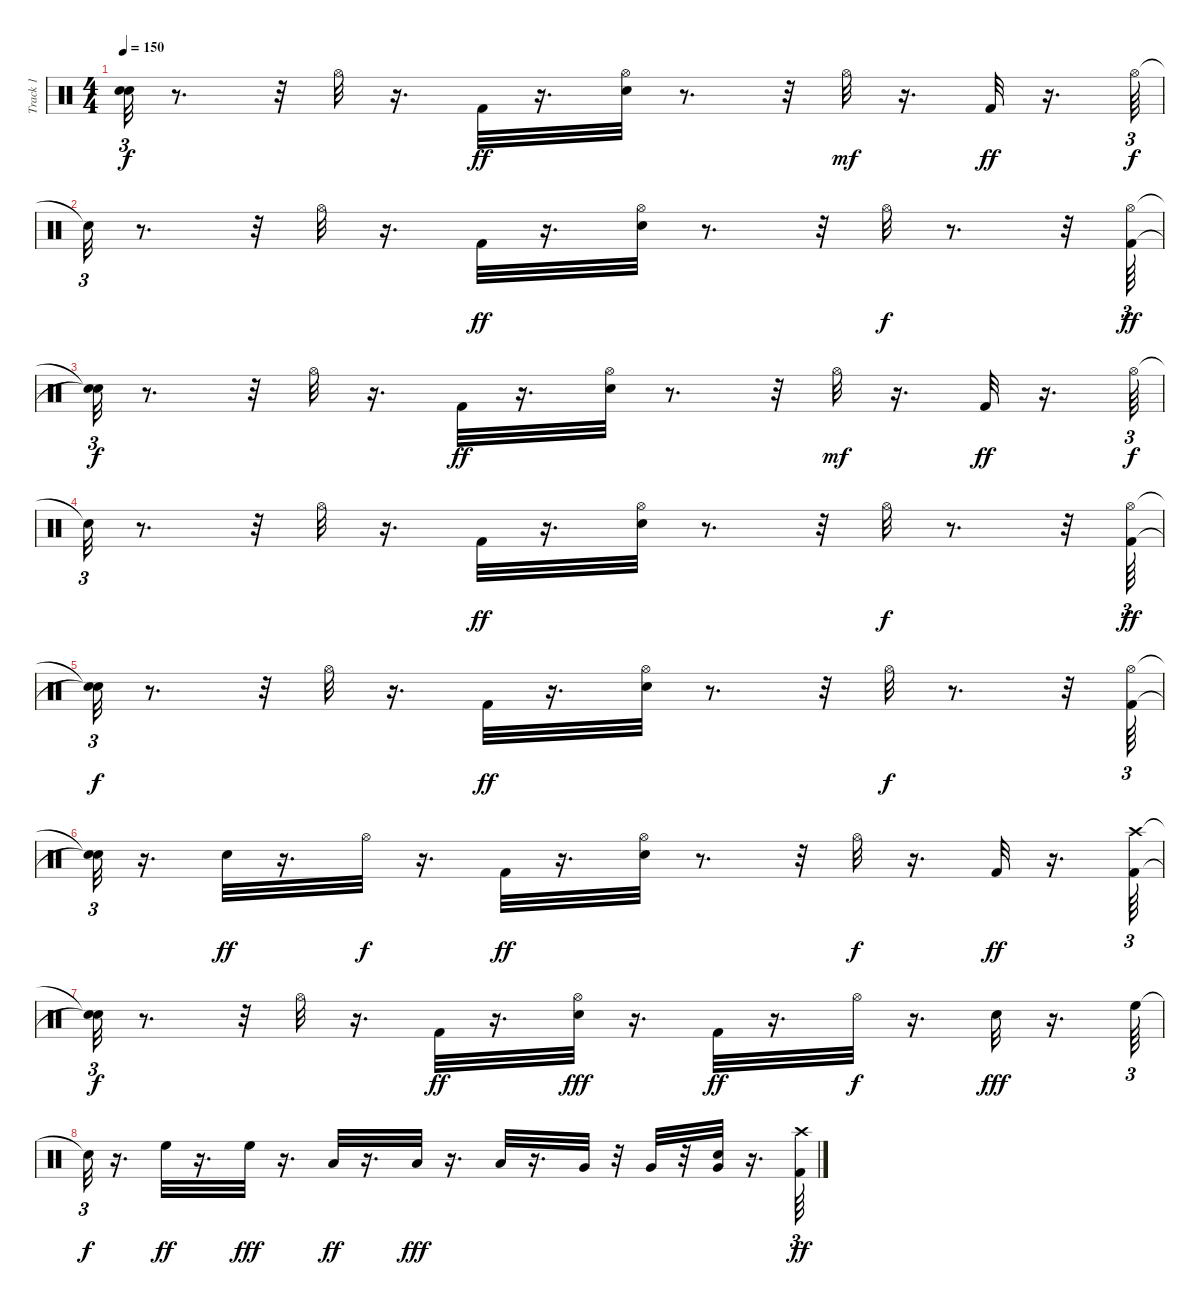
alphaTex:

\track ("Track 1" "Track 1") {instrument percussion}
\staff {score}
\articulation defaults
\ts (4 4)
\tempo 150
\clef neutral
\ks c
("Snare (hit)"{t} "Snare (hit)"{t}).32{tu (3 2) dy f} r.8{d} r.32 "Hi-Hat (open)".32 r.16{d} "Kick (hit) 2".32{dy ff} r.16{d} ("Hi-Hat (open)" "Snare (hit) 2").32 r.8{d} r.32 "Hi-Hat (open)".32{dy mf} r.16{d} "Kick (hit) 2".32{dy ff} r.16{d} "Hi-Hat (open)".64{tu (3 2) dy f} |
"Snare (hit)"{t}.32{tu (3 2)} r.8{d} r.32 "Hi-Hat (open)".32 r.16{d} "Kick (hit) 2".32{dy ff} r.16{d} ("Hi-Hat (open)" "Snare (hit) 2").32 r.8{d} r.32 "Hi-Hat (open)".32{dy f} r.8{d} r.32 ("Hi-Hat (open)" "Kick (hit) 2").64{tu (3 2) dy ff} |
("Snare (hit)"{t} "Snare (hit)"{t}).32{tu (3 2) dy f} r.8{d} r.32 "Hi-Hat (open)".32 r.16{d} "Kick (hit) 2".32{dy ff} r.16{d} ("Hi-Hat (open)" "Snare (hit) 2").32 r.8{d} r.32 "Hi-Hat (open)".32{dy mf} r.16{d} "Kick (hit) 2".32{dy ff} r.16{d} "Hi-Hat (open)".64{tu (3 2) dy f} |
"Snare (hit)"{t}.32{tu (3 2)} r.8{d} r.32 "Hi-Hat (open)".32 r.16{d} "Kick (hit) 2".32{dy ff} r.16{d} ("Hi-Hat (open)" "Snare (hit) 2").32 r.8{d} r.32 "Hi-Hat (open)".32{dy f} r.8{d} r.32 ("Hi-Hat (open)" "Kick (hit) 2").64{tu (3 2) dy ff} |
("Snare (hit)"{t} "Snare (hit)"{t}).32{tu (3 2) dy f} r.8{d} r.32 "Hi-Hat (open)".32 r.16{d} "Kick (hit) 2".32{dy ff} r.16{d} ("Hi-Hat (open)" "Snare (hit) 2").32 r.8{d} r.32 "Hi-Hat (open)".32{dy f} r.8{d} r.32 ("Hi-Hat (open)" "Kick (hit) 2").64{tu (3 2)} |
("Snare (hit)"{t} "Snare (hit)"{t}).32{tu (3 2)} r.16{d} "Snare (hit) 2".32{dy ff} r.16{d} "Hi-Hat (open)".32{dy f} r.16{d} "Kick (hit) 2".32{dy ff} r.16{d} ("Snare (hit) 2" "Hi-Hat (open)").32 r.8{d} r.32 "Hi-Hat (open)".32{dy f} r.16{d} "Kick (hit) 2".32{dy ff} r.16{d} ("Crash high (hit)" "Kick (hit) 2").64{tu (3 2)} |
("Snare (hit)"{t} "Snare (hit)"{t}).32{tu (3 2) dy f} r.8{d} r.32 "Hi-Hat (open)".32 r.16{d} "Kick (hit) 2".32{dy ff} r.16{d} ("Hi-Hat (open)" "Snare (hit) 2").32{dy fff} r.16{d} "Kick (hit) 2".32{dy ff} r.16{d} "Hi-Hat (open)".32{dy f} r.16{d} "Electric Snare (hit)".32{dy fff} r.16{d} "High Floor Tom (hit)".64{tu (3 2)} |
"Snare (hit)"{t}.32{tu (3 2) dy f} r.16{d} "High Floor Tom (hit)".32{dy ff} r.16{d} "High Floor Tom (hit)".32{dy fff} r.16{d} "Low Tom (hit)".32{dy ff} r.16{d} "Low Tom (hit)".32{dy fff} r.16{d} "Low Tom (hit)".32 r.16{d} "Very Low Tom (hit)".32 r.32 "Very Low Tom (hit)".32 r.32 ("Snare (hit) 2" "Very Low Tom (hit)").32 r.16{d} ("Crash high (hit)" "Kick (hit) 2").64{tu (3 2) dy ff}
